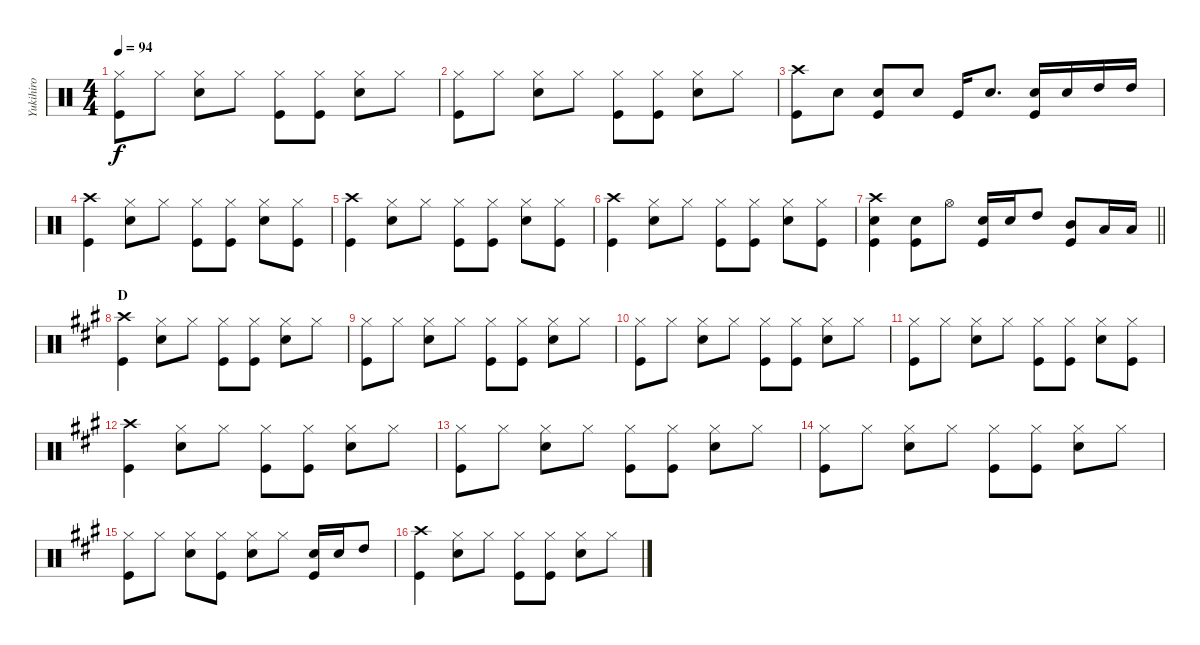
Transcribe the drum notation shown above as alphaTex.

\track ("Yukihiro" "Yukihiro") {instrument percussion}
\staff {score}
\articulation defaults
\ts (4 4)
\tempo 94
\clef neutral
\ks c
("Hi-Hat (closed)" "Kick (hit)").8{dy f} "Hi-Hat (closed)".8 ("Hi-Hat (closed)" "Snare (hit) 2").8 "Hi-Hat (closed)".8 ("Hi-Hat (closed)" "Kick (hit)").8 ("Kick (hit)" "Hi-Hat (closed)").8 ("Hi-Hat (closed)" "Snare (hit) 2").8 "Hi-Hat (closed)".8 |
("Hi-Hat (closed)" "Kick (hit)").8 "Hi-Hat (closed)".8 ("Hi-Hat (closed)" "Snare (hit) 2").8 "Hi-Hat (closed)".8 ("Hi-Hat (closed)" "Kick (hit)").8 ("Kick (hit)" "Hi-Hat (closed)").8 ("Hi-Hat (closed)" "Snare (hit) 2").8 "Hi-Hat (closed)".8 |
("Crash high (hit)" "Kick (hit)").8 "Snare (hit) 2".8 ("Snare (hit) 2" "Kick (hit)").8 "Snare (hit) 2".8 "Kick (hit)".16 "Snare (hit) 2".8{d} ("Kick (hit)" "Snare (hit) 2").16 "Snare (hit) 2".16 "High Tom (hit)".16 "High Tom (hit)".16 |
("Crash high (hit)" "Kick (hit)").4 ("Hi-Hat (closed)" "Snare (hit) 2").8 "Hi-Hat (closed)".8 ("Hi-Hat (closed)" "Kick (hit)").8 ("Hi-Hat (closed)" "Kick (hit)").8 ("Hi-Hat (closed)" "Snare (hit) 2").8 ("Hi-Hat (closed)" "Kick (hit)").8 |
("Crash high (hit)" "Kick (hit)").4 ("Hi-Hat (closed)" "Snare (hit) 2").8 "Hi-Hat (closed)".8 ("Hi-Hat (closed)" "Kick (hit)").8 ("Hi-Hat (closed)" "Kick (hit)").8 ("Hi-Hat (closed)" "Snare (hit) 2").8 ("Hi-Hat (closed)" "Kick (hit)").8 |
("Crash high (hit)" "Kick (hit)").4 ("Hi-Hat (closed)" "Snare (hit) 2").8 "Hi-Hat (closed)".8 ("Hi-Hat (closed)" "Kick (hit)").8 ("Hi-Hat (closed)" "Kick (hit)").8 ("Hi-Hat (closed)" "Snare (hit) 2").8 ("Hi-Hat (closed)" "Kick (hit)").8 |
\barLineRight lightlight
("Crash high (hit)" "Kick (hit)" "Snare (hit) 2").4 ("Snare (hit) 2" "Kick (hit)").8 "Hi-Hat (open)".8 ("Kick (hit)" "Snare (hit) 2").16 "Snare (hit) 2".16 "High Tom (hit)".8 ("Mid Tom (hit)" "Kick (hit)").8 "Low Tom (hit)".16 "Low Tom (hit)".16 |
\section ("" "D")
\ks a
("Crash high (hit)" "Kick (hit)").4 ("Hi-Hat (closed)" "Snare (hit) 2").8 "Hi-Hat (closed)".8 ("Hi-Hat (closed)" "Kick (hit)").8 ("Hi-Hat (closed)" "Kick (hit)").8 ("Hi-Hat (closed)" "Snare (hit) 2").8 "Hi-Hat (closed)".8 |
("Hi-Hat (closed)" "Kick (hit)").8 "Hi-Hat (closed)".8 ("Hi-Hat (closed)" "Snare (hit) 2").8 "Hi-Hat (closed)".8 ("Hi-Hat (closed)" "Kick (hit)").8 ("Hi-Hat (closed)" "Kick (hit)").8 ("Hi-Hat (closed)" "Snare (hit) 2").8 "Hi-Hat (closed)".8 |
("Hi-Hat (closed)" "Kick (hit)").8 "Hi-Hat (closed)".8 ("Hi-Hat (closed)" "Snare (hit) 2").8 "Hi-Hat (closed)".8 ("Hi-Hat (closed)" "Kick (hit)").8 ("Hi-Hat (closed)" "Kick (hit)").8 ("Hi-Hat (closed)" "Snare (hit) 2").8 "Hi-Hat (closed)".8 |
("Hi-Hat (closed)" "Kick (hit)").8 "Hi-Hat (closed)".8 ("Hi-Hat (closed)" "Snare (hit) 2").8 "Hi-Hat (closed)".8 ("Hi-Hat (closed)" "Kick (hit)").8 ("Hi-Hat (closed)" "Kick (hit)").8 ("Hi-Hat (closed)" "Snare (hit) 2").8 ("Hi-Hat (closed)" "Kick (hit)").8 |
("Kick (hit)" "Crash high (hit)").4 ("Snare (hit) 2" "Hi-Hat (closed)").8 "Hi-Hat (closed)".8 ("Kick (hit)" "Hi-Hat (closed)").8 ("Kick (hit)" "Hi-Hat (closed)").8 ("Hi-Hat (closed)" "Snare (hit) 2").8 "Hi-Hat (closed)".8 |
("Hi-Hat (closed)" "Kick (hit)").8 "Hi-Hat (closed)".8 ("Hi-Hat (closed)" "Snare (hit) 2").8 "Hi-Hat (closed)".8 ("Hi-Hat (closed)" "Kick (hit)").8 ("Hi-Hat (closed)" "Kick (hit)").8 ("Hi-Hat (closed)" "Snare (hit) 2").8 "Hi-Hat (closed)".8 |
("Hi-Hat (closed)" "Kick (hit)").8 "Hi-Hat (closed)".8 ("Hi-Hat (closed)" "Snare (hit) 2").8 "Hi-Hat (closed)".8 ("Hi-Hat (closed)" "Kick (hit)").8 ("Hi-Hat (closed)" "Kick (hit)").8 ("Hi-Hat (closed)" "Snare (hit) 2").8 "Hi-Hat (closed)".8 |
("Hi-Hat (closed)" "Kick (hit)").8 "Hi-Hat (closed)".8 ("Hi-Hat (closed)" "Snare (hit) 2").8 ("Hi-Hat (closed)" "Kick (hit)").8 ("Hi-Hat (closed)" "Snare (hit) 2").8 "Hi-Hat (closed)".8 ("Kick (hit)" "Snare (hit) 2").16 "Snare (hit) 2".16 "High Tom (hit)".8 |
("Kick (hit)" "Crash high (hit)").4 ("Snare (hit) 2" "Hi-Hat (closed)").8 "Hi-Hat (closed)".8 ("Kick (hit)" "Hi-Hat (closed)").8 ("Kick (hit)" "Hi-Hat (closed)").8 ("Hi-Hat (closed)" "Snare (hit) 2").8 "Hi-Hat (closed)".8
